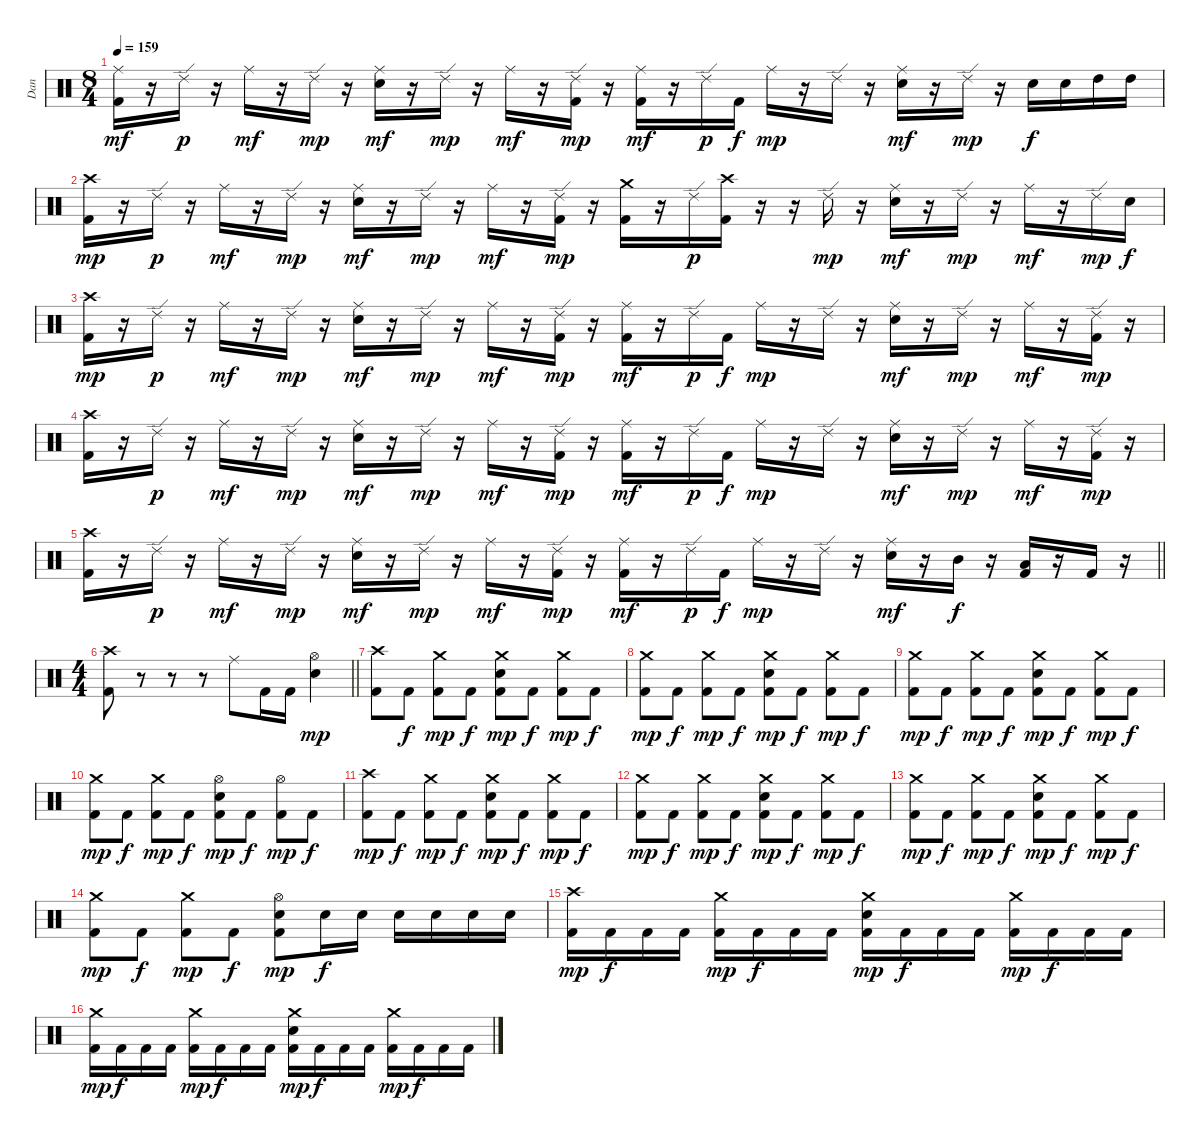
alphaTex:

\track ("Dan" "Dan") {instrument percussion}
\staff {score}
\articulation defaults
\ts (8 4)
\tempo 159
\clef neutral
\ks c
("Ride (middle)" "Kick (hit) 2").16{dy mf} r.16 "Ride (edge) 2".16{dy p} r.16 "Ride (middle)".16{dy mf} r.16 "Ride (edge) 2".16{dy mp} r.16 ("Ride (middle)" "Snare (hit) 2").16{dy mf} r.16 "Ride (edge) 2".16{dy mp} r.16 "Ride (middle)".16{dy mf} r.16 ("Ride (edge) 2" "Kick (hit) 2").16{dy mp} r.16 ("Ride (middle)" "Kick (hit) 2").16{dy mf} r.16 "Ride (edge) 2".16{dy p} "Kick (hit) 2".16{dy f} "Ride (middle)".16{dy mp} r.16 "Ride (edge) 2".16 r.16 ("Ride (middle)" "Snare (hit) 2").16{dy mf} r.16 "Ride (edge) 2".16{dy mp} r.16 "Snare (hit) 2".16{dy f} "Snare (hit) 2".16 "High Tom (hit)".16 "High Tom (hit)".16 |
("Crash high (hit)" "Kick (hit) 2").16{dy mp} r.16 "Ride (edge) 2".16{dy p} r.16 "Ride (middle)".16{dy mf} r.16 "Ride (edge) 2".16{dy mp} r.16 ("Ride (middle)" "Snare (hit) 2").16{dy mf} r.16 "Ride (edge) 2".16{dy mp} r.16 "Ride (middle)".16{dy mf} r.16 ("Ride (edge) 2" "Kick (hit) 2").16{dy mp} r.16 ("Crash medium (hit)" "Kick (hit) 2").16 r.16 "Ride (edge) 2".16{dy p} ("Crash high (hit)" "Kick (hit) 2").16 r.16 r.16 "Ride (edge) 2".16{dy mp} r.16 ("Ride (middle)" "Snare (hit) 2").16{dy mf} r.16 "Ride (edge) 2".16{dy mp} r.16 "Ride (middle)".16{dy mf} r.16 "Ride (edge) 2".16{dy mp} "Snare (hit) 2".16{dy f} |
("Crash high (hit)" "Kick (hit) 2").16{dy mp} r.16 "Ride (edge) 2".16{dy p} r.16 "Ride (middle)".16{dy mf} r.16 "Ride (edge) 2".16{dy mp} r.16 ("Ride (middle)" "Snare (hit) 2").16{dy mf} r.16 "Ride (edge) 2".16{dy mp} r.16 "Ride (middle)".16{dy mf} r.16 ("Ride (edge) 2" "Kick (hit) 2").16{dy mp} r.16 ("Ride (middle)" "Kick (hit) 2").16{dy mf} r.16 "Ride (edge) 2".16{dy p} "Kick (hit) 2".16{dy f} "Ride (middle)".16{dy mp} r.16 "Ride (edge) 2".16 r.16 ("Ride (middle)" "Snare (hit) 2").16{dy mf} r.16 "Ride (edge) 2".16{dy mp} r.16 "Ride (middle)".16{dy mf} r.16 ("Ride (edge) 2" "Kick (hit) 2").16{dy mp} r.16 |
("Crash high (hit)" "Kick (hit) 2").16 r.16 "Ride (edge) 2".16{dy p} r.16 "Ride (middle)".16{dy mf} r.16 "Ride (edge) 2".16{dy mp} r.16 ("Ride (middle)" "Snare (hit) 2").16{dy mf} r.16 "Ride (edge) 2".16{dy mp} r.16 "Ride (middle)".16{dy mf} r.16 ("Ride (edge) 2" "Kick (hit) 2").16{dy mp} r.16 ("Ride (middle)" "Kick (hit) 2").16{dy mf} r.16 "Ride (edge) 2".16{dy p} "Kick (hit) 2".16{dy f} "Ride (middle)".16{dy mp} r.16 "Ride (edge) 2".16 r.16 ("Ride (middle)" "Snare (hit) 2").16{dy mf} r.16 "Ride (edge) 2".16{dy mp} r.16 "Ride (middle)".16{dy mf} r.16 ("Ride (edge) 2" "Kick (hit) 2").16{dy mp} r.16 |
\barLineRight lightlight
("Crash high (hit)" "Kick (hit) 2").16 r.16 "Ride (edge) 2".16{dy p} r.16 "Ride (middle)".16{dy mf} r.16 "Ride (edge) 2".16{dy mp} r.16 ("Ride (middle)" "Snare (hit) 2").16{dy mf} r.16 "Ride (edge) 2".16{dy mp} r.16 "Ride (middle)".16{dy mf} r.16 ("Ride (edge) 2" "Kick (hit) 2").16{dy mp} r.16 ("Ride (middle)" "Kick (hit) 2").16{dy mf} r.16 "Ride (edge) 2".16{dy p} "Kick (hit) 2".16{dy f} "Ride (middle)".16{dy mp} r.16 "Ride (edge) 2".16 r.16 ("Ride (middle)" "Snare (hit) 2").16{dy mf} r.16 "Mid Tom (hit)".16{dy f} r.16 ("Low Tom (hit)" "Kick (hit) 2").16 r.16 "Kick (hit) 2".16 r.16 |
\ts (4 4)
\barLineRight lightlight
("Crash high (hit)" "Kick (hit) 2").8 r.8 r.8 r.8 "Ride (middle)".8 "Kick (hit) 2".16 "Kick (hit) 2".16 ("Hi-Hat (open)" "Snare (hit) 2").4{dy mp} |
("Crash high (hit)" "Kick (hit) 2").8 "Kick (hit) 2".8{dy f} ("Crash medium (hit)" "Kick (hit) 2").8{dy mp} "Kick (hit) 2".8{dy f} ("Crash medium (hit)" "Snare (hit) 2" "Kick (hit) 2").8{dy mp} "Kick (hit) 2".8{dy f} ("Crash medium (hit)" "Kick (hit) 2").8{dy mp} "Kick (hit) 2".8{dy f} |
("Crash medium (hit)" "Kick (hit) 2").8{dy mp} "Kick (hit) 2".8{dy f} ("Crash medium (hit)" "Kick (hit) 2").8{dy mp} "Kick (hit) 2".8{dy f} ("Crash medium (hit)" "Snare (hit) 2" "Kick (hit) 2").8{dy mp} "Kick (hit) 2".8{dy f} ("Crash medium (hit)" "Kick (hit) 2").8{dy mp} "Kick (hit) 2".8{dy f} |
("Crash medium (hit)" "Kick (hit) 2").8{dy mp} "Kick (hit) 2".8{dy f} ("Crash medium (hit)" "Kick (hit) 2").8{dy mp} "Kick (hit) 2".8{dy f} ("Crash medium (hit)" "Snare (hit) 2" "Kick (hit) 2").8{dy mp} "Kick (hit) 2".8{dy f} ("Crash medium (hit)" "Kick (hit) 2").8{dy mp} "Kick (hit) 2".8{dy f} |
("Crash medium (hit)" "Kick (hit) 2").8{dy mp} "Kick (hit) 2".8{dy f} ("Crash medium (hit)" "Kick (hit) 2").8{dy mp} "Kick (hit) 2".8{dy f} ("Hi-Hat (open)" "Snare (hit) 2" "Kick (hit) 2").8{dy mp} "Kick (hit) 2".8{dy f} ("Hi-Hat (open)" "Kick (hit) 2").8{dy mp} "Kick (hit) 2".8{dy f} |
("Crash high (hit)" "Kick (hit) 2").8{dy mp} "Kick (hit) 2".8{dy f} ("Crash medium (hit)" "Kick (hit) 2").8{dy mp} "Kick (hit) 2".8{dy f} ("Crash medium (hit)" "Snare (hit) 2" "Kick (hit) 2").8{dy mp} "Kick (hit) 2".8{dy f} ("Crash medium (hit)" "Kick (hit) 2").8{dy mp} "Kick (hit) 2".8{dy f} |
("Crash medium (hit)" "Kick (hit) 2").8{dy mp} "Kick (hit) 2".8{dy f} ("Crash medium (hit)" "Kick (hit) 2").8{dy mp} "Kick (hit) 2".8{dy f} ("Crash medium (hit)" "Snare (hit) 2" "Kick (hit) 2").8{dy mp} "Kick (hit) 2".8{dy f} ("Crash medium (hit)" "Kick (hit) 2").8{dy mp} "Kick (hit) 2".8{dy f} |
("Crash medium (hit)" "Kick (hit) 2").8{dy mp} "Kick (hit) 2".8{dy f} ("Crash medium (hit)" "Kick (hit) 2").8{dy mp} "Kick (hit) 2".8{dy f} ("Crash medium (hit)" "Snare (hit) 2" "Kick (hit) 2").8{dy mp} "Kick (hit) 2".8{dy f} ("Crash medium (hit)" "Kick (hit) 2").8{dy mp} "Kick (hit) 2".8{dy f} |
("Crash medium (hit)" "Kick (hit) 2").8{dy mp} "Kick (hit) 2".8{dy f} ("Crash medium (hit)" "Kick (hit) 2").8{dy mp} "Kick (hit) 2".8{dy f} ("Hi-Hat (open)" "Snare (hit) 2" "Kick (hit) 2").8{dy mp} "Snare (hit) 2".16{dy f} "Snare (hit) 2".16 "Snare (hit) 2".16 "Snare (hit) 2".16 "Snare (hit) 2".16 "Snare (hit) 2".16 |
("Crash high (hit)" "Kick (hit) 2").16{dy mp} "Kick (hit) 2".16{dy f} "Kick (hit) 2".16 "Kick (hit) 2".16 ("Crash medium (hit)" "Kick (hit) 2").16{dy mp} "Kick (hit) 2".16{dy f} "Kick (hit) 2".16 "Kick (hit) 2".16 ("Crash medium (hit)" "Snare (hit) 2" "Kick (hit) 2").16{dy mp} "Kick (hit) 2".16{dy f} "Kick (hit) 2".16 "Kick (hit) 2".16 ("Crash medium (hit)" "Kick (hit) 2").16{dy mp} "Kick (hit) 2".16{dy f} "Kick (hit) 2".16 "Kick (hit) 2".16 |
("Crash medium (hit)" "Kick (hit) 2").16{dy mp} "Kick (hit) 2".16{dy f} "Kick (hit) 2".16 "Kick (hit) 2".16 ("Crash medium (hit)" "Kick (hit) 2").16{dy mp} "Kick (hit) 2".16{dy f} "Kick (hit) 2".16 "Kick (hit) 2".16 ("Crash medium (hit)" "Snare (hit) 2" "Kick (hit) 2").16{dy mp} "Kick (hit) 2".16{dy f} "Kick (hit) 2".16 "Kick (hit) 2".16 ("Crash medium (hit)" "Kick (hit) 2").16{dy mp} "Kick (hit) 2".16{dy f} "Kick (hit) 2".16 "Kick (hit) 2".16
